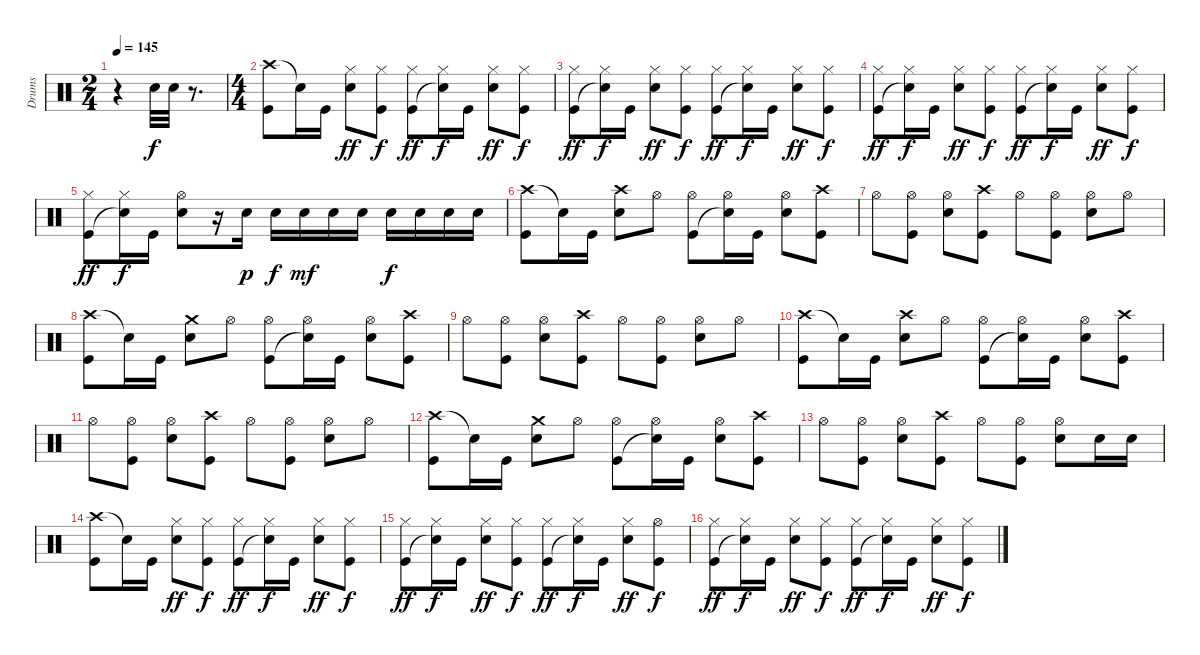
\track ("Drums" "Drums") {instrument percussion}
\staff {score}
\articulation defaults
\ts (2 4)
\tempo 145
\clef neutral
\ks c
r.4{dy f} "Snare (hit) 2".32 "Snare (hit) 2".32 r.8{d} |
\ts (4 4)
("Crash high (hit)" "Kick (hit)").8 "Snare (hit) 2"{t}.16 "Kick (hit)".16 ("Hi-Hat (closed)" "Snare (hit) 2").8{dy ff} ("Hi-Hat (closed)" "Kick (hit)").8{dy f} ("Hi-Hat (closed)" "Kick (hit)").8{dy ff} ("Hi-Hat (closed)" "Snare (hit)"{t}).16{dy f} "Kick (hit)".16 ("Hi-Hat (closed)" "Snare (hit) 2").8{dy ff} ("Hi-Hat (closed)" "Kick (hit)").8{dy f} |
("Hi-Hat (closed)" "Kick (hit)").8{dy ff} ("Hi-Hat (closed)" "Snare (hit) 2"{t}).16{dy f} "Kick (hit)".16 ("Hi-Hat (closed)" "Snare (hit) 2").8{dy ff} ("Hi-Hat (closed)" "Kick (hit)").8{dy f} ("Hi-Hat (closed)" "Kick (hit)").8{dy ff} ("Hi-Hat (closed)" "Snare (hit)"{t}).16{dy f} "Kick (hit)".16 ("Hi-Hat (closed)" "Snare (hit) 2").8{dy ff} ("Hi-Hat (closed)" "Kick (hit)").8{dy f} |
("Hi-Hat (closed)" "Kick (hit)").8{dy ff} ("Hi-Hat (closed)" "Snare (hit) 2"{t}).16{dy f} "Kick (hit)".16 ("Hi-Hat (closed)" "Snare (hit) 2").8{dy ff} ("Hi-Hat (closed)" "Kick (hit)").8{dy f} ("Hi-Hat (closed)" "Kick (hit)").8{dy ff} ("Hi-Hat (closed)" "Snare (hit)"{t}).16{dy f} "Kick (hit)".16 ("Hi-Hat (closed)" "Snare (hit) 2").8{dy ff} ("Hi-Hat (closed)" "Kick (hit)").8{dy f} |
("Hi-Hat (closed)" "Kick (hit)").8{dy ff} ("Hi-Hat (closed)" "Snare (hit) 2"{t}).16{dy f} "Kick (hit)".16 ("Hi-Hat (open)" "Snare (hit) 2").8 r.16 "Snare (hit) 2".16{dy p} "Snare (hit) 2".16{dy f} "Snare (hit) 2".16{dy mf} "Snare (hit) 2".16 "Snare (hit) 2".16 "Snare (hit) 2".16{dy f} "Snare (hit) 2".16 "Snare (hit) 2".16 "Snare (hit) 2".16 |
("Crash high (hit)" "Kick (hit)").8 "Snare (hit) 2"{t}.16 "Kick (hit)".16 ("Crash high (hit)" "Snare (hit) 2").8 "Hi-Hat (open)".8 ("Hi-Hat (open)" "Kick (hit)").8 ("Hi-Hat (open)" "Snare (hit)"{t}).16 "Kick (hit)".16 ("Hi-Hat (open)" "Snare (hit) 2").8 ("Crash high (hit)" "Kick (hit)").8 |
"Hi-Hat (open)".8 ("Hi-Hat (open)" "Kick (hit)").8 ("Hi-Hat (open)" "Snare (hit) 2").8 ("Crash high (hit)" "Kick (hit)").8 "Hi-Hat (open)".8 ("Hi-Hat (open)" "Kick (hit)").8 ("Hi-Hat (open)" "Snare (hit) 2").8 "Hi-Hat (open)".8 |
("Crash high (hit)" "Kick (hit)").8 "Snare (hit) 2"{t}.16 "Kick (hit)".16 ("Crash medium (hit)" "Snare (hit) 2").8 "Hi-Hat (open)".8 ("Hi-Hat (open)" "Kick (hit)").8 ("Hi-Hat (open)" "Snare (hit)"{t}).16 "Kick (hit)".16 ("Hi-Hat (open)" "Snare (hit) 2").8 ("Crash high (hit)" "Kick (hit)").8 |
"Hi-Hat (open)".8 ("Hi-Hat (open)" "Kick (hit)").8 ("Hi-Hat (open)" "Snare (hit) 2").8 ("Crash high (hit)" "Kick (hit)").8 "Hi-Hat (open)".8 ("Hi-Hat (open)" "Kick (hit)").8 ("Hi-Hat (open)" "Snare (hit) 2").8 "Hi-Hat (open)".8 |
("Crash high (hit)" "Kick (hit)").8 "Snare (hit) 2"{t}.16 "Kick (hit)".16 ("Crash high (hit)" "Snare (hit) 2").8 "Hi-Hat (open)".8 ("Hi-Hat (open)" "Kick (hit)").8 ("Hi-Hat (open)" "Snare (hit)"{t}).16 "Kick (hit)".16 ("Hi-Hat (open)" "Snare (hit) 2").8 ("Crash high (hit)" "Kick (hit)").8 |
"Hi-Hat (open)".8 ("Hi-Hat (open)" "Kick (hit)").8 ("Hi-Hat (open)" "Snare (hit) 2").8 ("Crash high (hit)" "Kick (hit)").8 "Hi-Hat (open)".8 ("Hi-Hat (open)" "Kick (hit)").8 ("Hi-Hat (open)" "Snare (hit) 2").8 "Hi-Hat (open)".8 |
("Crash high (hit)" "Kick (hit)").8 "Snare (hit) 2"{t}.16 "Kick (hit)".16 ("Crash medium (hit)" "Snare (hit) 2").8 "Hi-Hat (open)".8 ("Hi-Hat (open)" "Kick (hit)").8 ("Hi-Hat (open)" "Snare (hit)"{t}).16 "Kick (hit)".16 ("Hi-Hat (open)" "Snare (hit) 2").8 ("Crash high (hit)" "Kick (hit)").8 |
"Hi-Hat (open)".8 ("Hi-Hat (open)" "Kick (hit)").8 ("Hi-Hat (open)" "Snare (hit) 2").8 ("Crash high (hit)" "Kick (hit)").8 "Hi-Hat (open)".8 ("Hi-Hat (open)" "Kick (hit)").8 ("Hi-Hat (open)" "Snare (hit) 2").8 "Snare (hit) 2".16 "Snare (hit) 2".16 |
("Crash high (hit)" "Kick (hit)").8 "Snare (hit) 2"{t}.16 "Kick (hit)".16 ("Hi-Hat (closed)" "Snare (hit) 2").8{dy ff} ("Hi-Hat (closed)" "Kick (hit)").8{dy f} ("Hi-Hat (closed)" "Kick (hit)").8{dy ff} ("Hi-Hat (closed)" "Snare (hit)"{t}).16{dy f} "Kick (hit)".16 ("Hi-Hat (closed)" "Snare (hit) 2").8{dy ff} ("Hi-Hat (closed)" "Kick (hit)").8{dy f} |
("Hi-Hat (closed)" "Kick (hit)").8{dy ff} ("Hi-Hat (closed)" "Snare (hit) 2"{t}).16{dy f} "Kick (hit)".16 ("Hi-Hat (closed)" "Snare (hit) 2").8{dy ff} ("Hi-Hat (closed)" "Kick (hit)").8{dy f} ("Hi-Hat (closed)" "Kick (hit)").8{dy ff} ("Hi-Hat (closed)" "Snare (hit)"{t}).16{dy f} "Kick (hit)".16 ("Hi-Hat (closed)" "Snare (hit) 2").8{dy ff} ("Hi-Hat (open)" "Kick (hit)").8{dy f} |
("Hi-Hat (closed)" "Kick (hit)").8{dy ff} ("Hi-Hat (closed)" "Snare (hit) 2"{t}).16{dy f} "Kick (hit)".16 ("Hi-Hat (closed)" "Snare (hit) 2").8{dy ff} ("Hi-Hat (closed)" "Kick (hit)").8{dy f} ("Hi-Hat (closed)" "Kick (hit)").8{dy ff} ("Hi-Hat (closed)" "Snare (hit)"{t}).16{dy f} "Kick (hit)".16 ("Hi-Hat (closed)" "Snare (hit) 2").8{dy ff} ("Hi-Hat (closed)" "Kick (hit)").8{dy f}
